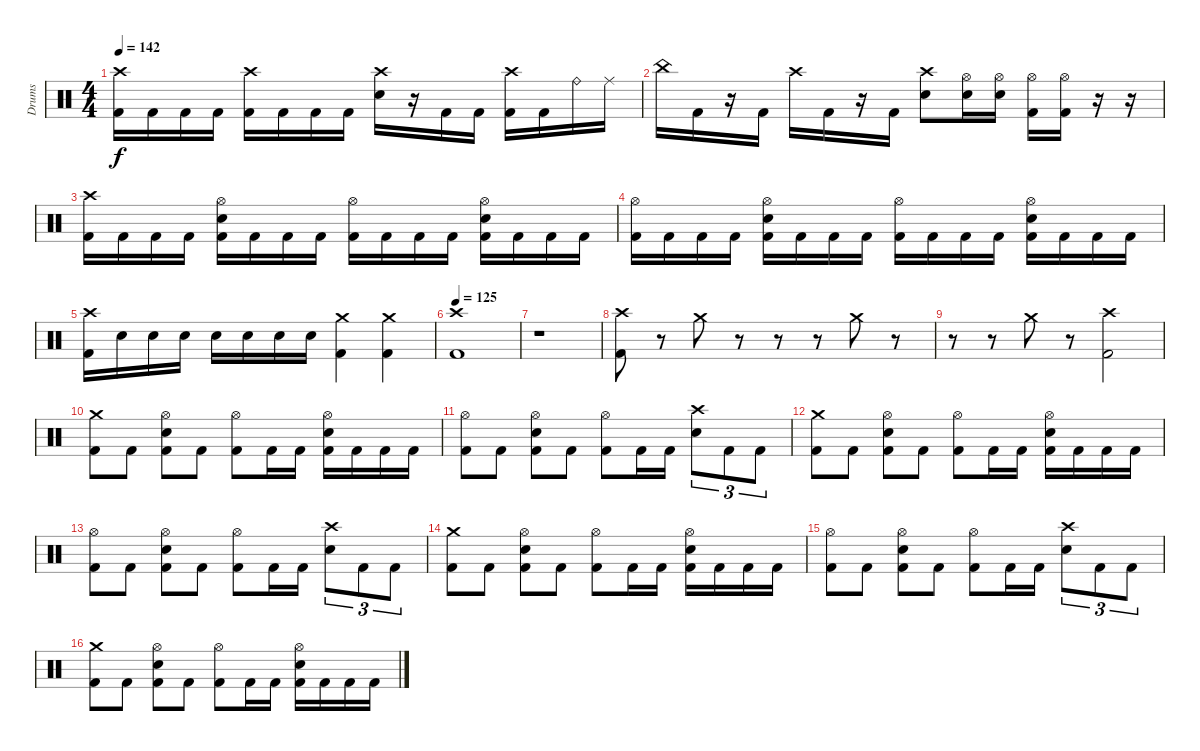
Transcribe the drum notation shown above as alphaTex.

\track ("Drums" "Drums") {instrument percussion}
\staff {score}
\articulation defaults
\ts (4 4)
\tempo 142
\clef neutral
\ks c
("Crash high (hit)" "Kick (hit) 2").16{dy f} "Kick (hit) 2".16 "Kick (hit) 2".16 "Kick (hit) 2".16 ("Crash high (hit)" "Kick (hit) 2").16 "Kick (hit) 2".16 "Kick (hit) 2".16 "Kick (hit) 2".16 ("Crash high (hit)" "Electric Snare (hit)").16 r.16 "Kick (hit) 2".16 "Kick (hit) 2".16 ("Crash high (hit)" "Kick (hit) 2").16 "Kick (hit) 2".16 "Ride (bell)".16 "Ride (middle)".16 |
"China (hit)".16 "Kick (hit) 2".16 r.16 "Kick (hit) 2".16 "Crash high (hit)".16 "Kick (hit) 2".16 r.16 "Kick (hit) 2".16 ("Crash high (hit)" "Electric Snare (hit)").8 ("Hi-Hat (open)" "Electric Snare (hit)").16 ("Hi-Hat (open)" "Electric Snare (hit)").16 ("Hi-Hat (open)" "Kick (hit) 2").16 ("Hi-Hat (open)" "Kick (hit) 2").16 r.16 r.16 |
("Crash high (hit)" "Kick (hit) 2").16 "Kick (hit) 2".16 "Kick (hit) 2".16 "Kick (hit) 2".16 ("Hi-Hat (open)" "Electric Snare (hit)" "Kick (hit) 2").16 "Kick (hit) 2".16 "Kick (hit) 2".16 "Kick (hit) 2".16 ("Hi-Hat (open)" "Kick (hit) 2").16 "Kick (hit) 2".16 "Kick (hit) 2".16 "Kick (hit) 2".16 ("Hi-Hat (open)" "Electric Snare (hit)" "Kick (hit) 2").16 "Kick (hit) 2".16 "Kick (hit) 2".16 "Kick (hit) 2".16 |
("Hi-Hat (open)" "Kick (hit) 2").16 "Kick (hit) 2".16 "Kick (hit) 2".16 "Kick (hit) 2".16 ("Hi-Hat (open)" "Electric Snare (hit)" "Kick (hit) 2").16 "Kick (hit) 2".16 "Kick (hit) 2".16 "Kick (hit) 2".16 ("Hi-Hat (open)" "Kick (hit) 2").16 "Kick (hit) 2".16 "Kick (hit) 2".16 "Kick (hit) 2".16 ("Hi-Hat (open)" "Electric Snare (hit)" "Kick (hit) 2").16 "Kick (hit) 2".16 "Kick (hit) 2".16 "Kick (hit) 2".16 |
("Crash high (hit)" "Kick (hit) 2").16 "Electric Snare (hit)".16 "Electric Snare (hit)".16 "Electric Snare (hit)".16 "Electric Snare (hit)".16 "Electric Snare (hit)".16 "Electric Snare (hit)".16 "Electric Snare (hit)".16 ("Crash medium (hit)" "Kick (hit) 2").4 ("Crash medium (hit)" "Kick (hit) 2").4 |
\tempo 125
("Crash high (hit)" "Kick (hit) 2").1 |
r.1 |
("Crash high (hit)" "Kick (hit) 2").8 r.8 "Crash medium (hit)".8 r.8 r.8 r.8 "Crash medium (hit)".8 r.8 |
r.8 r.8 "Crash medium (hit)".8 r.8 ("Crash high (hit)" "Kick (hit) 2").2 |
("Crash medium (hit)" "Kick (hit) 2").8 "Kick (hit) 2".8 ("Hi-Hat (open)" "Electric Snare (hit)" "Kick (hit) 2").8 "Kick (hit) 2".8 ("Hi-Hat (open)" "Kick (hit) 2").8 "Kick (hit) 2".16 "Kick (hit) 2".16 ("Hi-Hat (open)" "Electric Snare (hit)" "Kick (hit) 2").16 "Kick (hit) 2".16 "Kick (hit) 2".16 "Kick (hit) 2".16 |
("Hi-Hat (open)" "Kick (hit) 2").8 "Kick (hit) 2".8 ("Hi-Hat (open)" "Electric Snare (hit)" "Kick (hit) 2").8 "Kick (hit) 2".8 ("Hi-Hat (open)" "Kick (hit) 2").8 "Kick (hit) 2".16 "Kick (hit) 2".16 ("Crash high (hit)" "Electric Snare (hit)").8{tu (3 2)} "Kick (hit) 2".8{tu (3 2)} "Kick (hit) 2".8{tu (3 2)} |
("Crash medium (hit)" "Kick (hit) 2").8 "Kick (hit) 2".8 ("Hi-Hat (open)" "Electric Snare (hit)" "Kick (hit) 2").8 "Kick (hit) 2".8 ("Hi-Hat (open)" "Kick (hit) 2").8 "Kick (hit) 2".16 "Kick (hit) 2".16 ("Hi-Hat (open)" "Electric Snare (hit)" "Kick (hit) 2").16 "Kick (hit) 2".16 "Kick (hit) 2".16 "Kick (hit) 2".16 |
("Hi-Hat (open)" "Kick (hit) 2").8 "Kick (hit) 2".8 ("Hi-Hat (open)" "Electric Snare (hit)" "Kick (hit) 2").8 "Kick (hit) 2".8 ("Hi-Hat (open)" "Kick (hit) 2").8 "Kick (hit) 2".16 "Kick (hit) 2".16 ("Crash high (hit)" "Electric Snare (hit)").8{tu (3 2)} "Kick (hit) 2".8{tu (3 2)} "Kick (hit) 2".8{tu (3 2)} |
("Crash medium (hit)" "Kick (hit) 2").8 "Kick (hit) 2".8 ("Hi-Hat (open)" "Electric Snare (hit)" "Kick (hit) 2").8 "Kick (hit) 2".8 ("Hi-Hat (open)" "Kick (hit) 2").8 "Kick (hit) 2".16 "Kick (hit) 2".16 ("Hi-Hat (open)" "Electric Snare (hit)" "Kick (hit) 2").16 "Kick (hit) 2".16 "Kick (hit) 2".16 "Kick (hit) 2".16 |
("Hi-Hat (open)" "Kick (hit) 2").8 "Kick (hit) 2".8 ("Hi-Hat (open)" "Electric Snare (hit)" "Kick (hit) 2").8 "Kick (hit) 2".8 ("Hi-Hat (open)" "Kick (hit) 2").8 "Kick (hit) 2".16 "Kick (hit) 2".16 ("Crash high (hit)" "Electric Snare (hit)").8{tu (3 2)} "Kick (hit) 2".8{tu (3 2)} "Kick (hit) 2".8{tu (3 2)} |
("Crash medium (hit)" "Kick (hit) 2").8 "Kick (hit) 2".8 ("Hi-Hat (open)" "Electric Snare (hit)" "Kick (hit) 2").8 "Kick (hit) 2".8 ("Hi-Hat (open)" "Kick (hit) 2").8 "Kick (hit) 2".16 "Kick (hit) 2".16 ("Hi-Hat (open)" "Electric Snare (hit)" "Kick (hit) 2").16 "Kick (hit) 2".16 "Kick (hit) 2".16 "Kick (hit) 2".16
